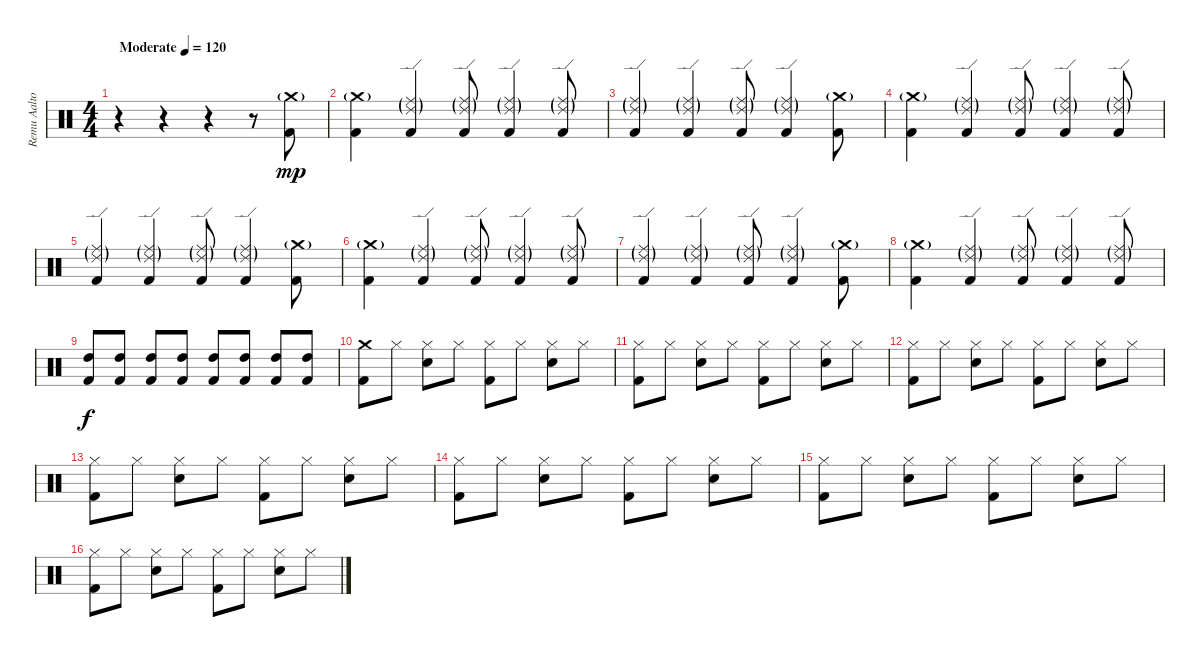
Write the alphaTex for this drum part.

\track ("Remu Aaltonen" "Remu Aalto") {instrument percussion}
\staff {score}
\articulation defaults
\ts (4 4)
\tempo (120 "Moderate")
\clef neutral
\ks c
r.4{dy mp} r.4 r.4 r.8 ("Crash medium (hit)"{g} "Kick (hit) 2").8 |
("Crash medium (hit)"{g} "Kick (hit) 2").4 ("Ride (middle)"{g} "Ride (edge) 2"{g} "Kick (hit) 2").4 ("Ride (middle)"{g} "Ride (edge) 2"{g} "Kick (hit) 2").8 ("Ride (middle)"{g} "Ride (edge) 2"{g} "Kick (hit) 2").4 ("Ride (middle)"{g} "Ride (edge) 2"{g} "Kick (hit) 2").8 |
("Ride (middle)"{g} "Ride (edge) 2"{g} "Kick (hit) 2").4 ("Ride (middle)"{g} "Ride (edge) 2"{g} "Kick (hit) 2").4 ("Ride (middle)"{g} "Ride (edge) 2"{g} "Kick (hit) 2").8 ("Ride (middle)"{g} "Ride (edge) 2"{g} "Kick (hit) 2").4 ("Crash medium (hit)"{g} "Kick (hit) 2").8 |
("Crash medium (hit)"{g} "Kick (hit) 2").4 ("Ride (middle)"{g} "Ride (edge) 2"{g} "Kick (hit) 2").4 ("Ride (middle)"{g} "Ride (edge) 2"{g} "Kick (hit) 2").8 ("Ride (middle)"{g} "Ride (edge) 2"{g} "Kick (hit) 2").4 ("Ride (middle)"{g} "Ride (edge) 2"{g} "Kick (hit) 2").8 |
("Ride (middle)"{g} "Ride (edge) 2"{g} "Kick (hit) 2").4 ("Ride (middle)"{g} "Ride (edge) 2"{g} "Kick (hit) 2").4 ("Ride (middle)"{g} "Ride (edge) 2"{g} "Kick (hit) 2").8 ("Ride (middle)"{g} "Ride (edge) 2"{g} "Kick (hit) 2").4 ("Crash medium (hit)"{g} "Kick (hit) 2").8 |
("Crash medium (hit)"{g} "Kick (hit) 2").4 ("Ride (middle)"{g} "Ride (edge) 2"{g} "Kick (hit) 2").4 ("Ride (middle)"{g} "Ride (edge) 2"{g} "Kick (hit) 2").8 ("Ride (middle)"{g} "Ride (edge) 2"{g} "Kick (hit) 2").4 ("Ride (middle)"{g} "Ride (edge) 2"{g} "Kick (hit) 2").8 |
("Ride (middle)"{g} "Ride (edge) 2"{g} "Kick (hit) 2").4 ("Ride (middle)"{g} "Ride (edge) 2"{g} "Kick (hit) 2").4 ("Ride (middle)"{g} "Ride (edge) 2"{g} "Kick (hit) 2").8 ("Ride (middle)"{g} "Ride (edge) 2"{g} "Kick (hit) 2").4 ("Crash medium (hit)"{g} "Kick (hit) 2").8 |
("Crash medium (hit)"{g} "Kick (hit) 2").4 ("Ride (middle)"{g} "Ride (edge) 2"{g} "Kick (hit) 2").4 ("Ride (middle)"{g} "Ride (edge) 2"{g} "Kick (hit) 2").8 ("Ride (middle)"{g} "Ride (edge) 2"{g} "Kick (hit) 2").4 ("Ride (middle)"{g} "Ride (edge) 2"{g} "Kick (hit) 2").8 |
("High Tom (hit)" "Kick (hit) 2").8{dy f volume 7} ("High Tom (hit)" "Kick (hit) 2").8{volume 13} ("High Tom (hit)" "Kick (hit) 2").8 ("High Tom (hit)" "Kick (hit) 2").8 ("High Tom (hit)" "Kick (hit) 2").8 ("High Tom (hit)" "Kick (hit) 2").8 ("High Tom (hit)" "Kick (hit) 2").8 ("High Tom (hit)" "Kick (hit) 2").8 |
("Crash medium (hit)" "Kick (hit) 2").8 "Hi-Hat (closed)".8 ("Hi-Hat (closed)" "Snare (hit) 2").8 "Hi-Hat (closed)".8 ("Hi-Hat (closed)" "Kick (hit) 2").8 "Hi-Hat (closed)".8 ("Hi-Hat (closed)" "Snare (hit) 2").8 "Hi-Hat (closed)".8 |
("Hi-Hat (closed)" "Kick (hit) 2").8 "Hi-Hat (closed)".8 ("Hi-Hat (closed)" "Snare (hit) 2").8 "Hi-Hat (closed)".8 ("Hi-Hat (closed)" "Kick (hit) 2").8 "Hi-Hat (closed)".8 ("Hi-Hat (closed)" "Snare (hit) 2").8 "Hi-Hat (closed)".8 |
("Hi-Hat (closed)" "Kick (hit) 2").8 "Hi-Hat (closed)".8 ("Hi-Hat (closed)" "Snare (hit) 2").8 "Hi-Hat (closed)".8 ("Hi-Hat (closed)" "Kick (hit) 2").8 "Hi-Hat (closed)".8 ("Hi-Hat (closed)" "Snare (hit) 2").8 "Hi-Hat (closed)".8 |
("Hi-Hat (closed)" "Kick (hit) 2").8 "Hi-Hat (closed)".8 ("Hi-Hat (closed)" "Snare (hit) 2").8 "Hi-Hat (closed)".8 ("Hi-Hat (closed)" "Kick (hit) 2").8 "Hi-Hat (closed)".8 ("Hi-Hat (closed)" "Snare (hit) 2").8 "Hi-Hat (closed)".8 |
("Hi-Hat (closed)" "Kick (hit) 2").8 "Hi-Hat (closed)".8 ("Hi-Hat (closed)" "Snare (hit) 2").8 "Hi-Hat (closed)".8 ("Hi-Hat (closed)" "Kick (hit) 2").8 "Hi-Hat (closed)".8 ("Hi-Hat (closed)" "Snare (hit) 2").8 "Hi-Hat (closed)".8 |
("Hi-Hat (closed)" "Kick (hit) 2").8 "Hi-Hat (closed)".8 ("Hi-Hat (closed)" "Snare (hit) 2").8 "Hi-Hat (closed)".8 ("Hi-Hat (closed)" "Kick (hit) 2").8 "Hi-Hat (closed)".8 ("Hi-Hat (closed)" "Snare (hit) 2").8 "Hi-Hat (closed)".8 |
("Hi-Hat (closed)" "Kick (hit) 2").8 "Hi-Hat (closed)".8 ("Hi-Hat (closed)" "Snare (hit) 2").8 "Hi-Hat (closed)".8 ("Hi-Hat (closed)" "Kick (hit) 2").8 "Hi-Hat (closed)".8 ("Hi-Hat (closed)" "Snare (hit) 2").8 "Hi-Hat (closed)".8
